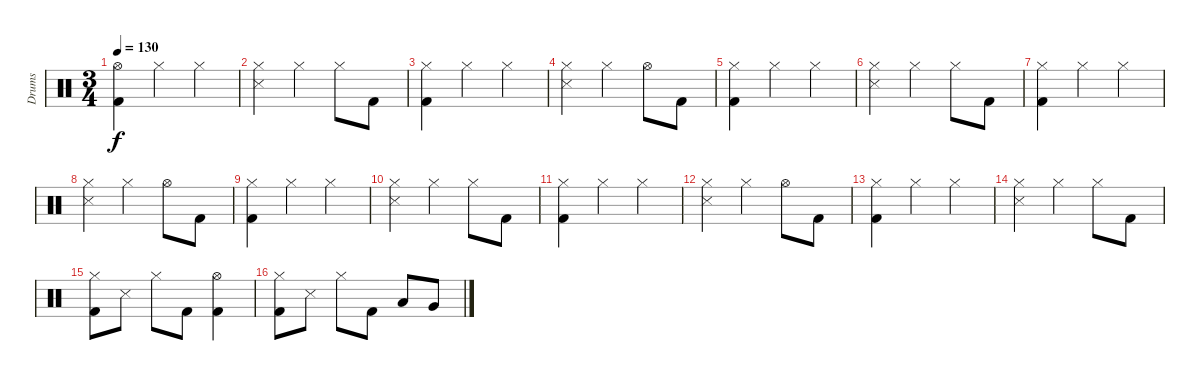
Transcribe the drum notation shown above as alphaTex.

\track ("Drums" "Drums") {instrument percussion}
\staff {score}
\articulation defaults
\ts (3 4)
\tempo 130
\clef neutral
\ks c
("Hi-Hat (open)" "Kick (hit) 2").4{dy f} "Hi-Hat (closed)".4 "Hi-Hat (closed)".4 |
("Hi-Hat (closed)" "Snare (side stick) 3").4 "Hi-Hat (closed)".4 "Hi-Hat (closed)".8 "Kick (hit) 2".8 |
("Hi-Hat (closed)" "Kick (hit) 2").4 "Hi-Hat (closed)".4 "Hi-Hat (closed)".4 |
("Hi-Hat (closed)" "Snare (side stick) 3").4 "Hi-Hat (closed)".4 "Hi-Hat (open)".8 "Kick (hit) 2".8 |
("Hi-Hat (closed)" "Kick (hit) 2").4 "Hi-Hat (closed)".4 "Hi-Hat (closed)".4 |
("Hi-Hat (closed)" "Snare (side stick) 3").4 "Hi-Hat (closed)".4 "Hi-Hat (closed)".8 "Kick (hit) 2".8 |
("Hi-Hat (closed)" "Kick (hit) 2").4 "Hi-Hat (closed)".4 "Hi-Hat (closed)".4 |
("Hi-Hat (closed)" "Snare (side stick) 3").4 "Hi-Hat (closed)".4 "Hi-Hat (open)".8 "Kick (hit) 2".8 |
("Hi-Hat (closed)" "Kick (hit) 2").4 "Hi-Hat (closed)".4 "Hi-Hat (closed)".4 |
("Hi-Hat (closed)" "Snare (side stick) 3").4 "Hi-Hat (closed)".4 "Hi-Hat (closed)".8 "Kick (hit) 2".8 |
("Hi-Hat (closed)" "Kick (hit) 2").4 "Hi-Hat (closed)".4 "Hi-Hat (closed)".4 |
("Hi-Hat (closed)" "Snare (side stick) 3").4 "Hi-Hat (closed)".4 "Hi-Hat (open)".8 "Kick (hit) 2".8 |
("Hi-Hat (closed)" "Kick (hit) 2").4 "Hi-Hat (closed)".4 "Hi-Hat (closed)".4 |
("Hi-Hat (closed)" "Snare (side stick) 3").4 "Hi-Hat (closed)".4 "Hi-Hat (closed)".8 "Kick (hit) 2".8 |
("Hi-Hat (closed)" "Kick (hit) 2").8 "Snare (side stick) 3".8 "Hi-Hat (closed)".8 "Kick (hit) 2".8 ("Hi-Hat (open)" "Kick (hit) 2").4 |
("Hi-Hat (closed)" "Kick (hit) 2").8 "Snare (side stick) 3".8 "Hi-Hat (closed)".8 "Kick (hit) 2".8 "Low Tom (hit)".8 "Very Low Tom (hit)".8
